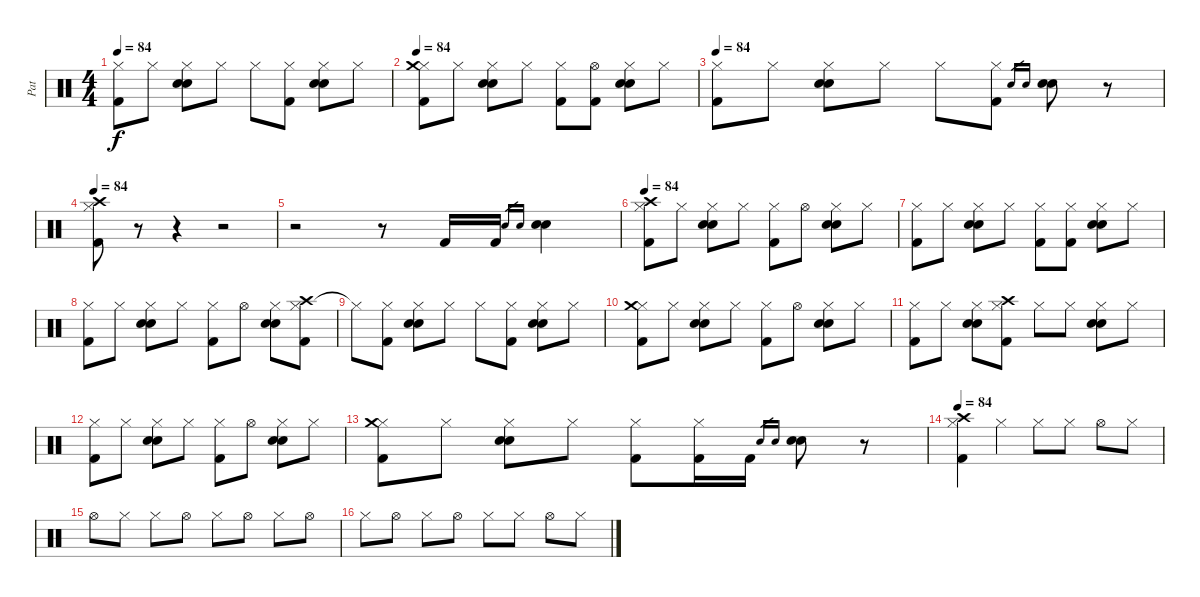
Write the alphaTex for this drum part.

\track ("Pat" "Pat") {instrument percussion}
\staff {score}
\articulation defaults
\ts (4 4)
\tempo 84
\clef neutral
\ks c
("Hi-Hat (closed)" "Kick (hit) 2").8{dy f} "Hi-Hat (closed)".8 ("Hi-Hat (closed)" "Electric Snare (hit)" "Snare (hit) 2").8 "Hi-Hat (closed)".8 "Hi-Hat (closed)".8 ("Hi-Hat (closed)" "Kick (hit) 2").8 ("Hi-Hat (closed)" "Electric Snare (hit)" "Snare (hit) 2").8 "Hi-Hat (closed)".8 |
\tempo 84
("Hi-Hat (closed)" "Crash medium (hit)" "Kick (hit) 2").8 "Hi-Hat (closed)".8 ("Hi-Hat (closed)" "Electric Snare (hit)" "Snare (hit) 2").8 "Hi-Hat (closed)".8 ("Hi-Hat (closed)" "Kick (hit) 2").8 ("Hi-Hat (open)" "Kick (hit) 2").8 ("Hi-Hat (closed)" "Electric Snare (hit)" "Snare (hit) 2").8 "Hi-Hat (closed)".8 |
\tempo 84
("Hi-Hat (closed)" "Kick (hit) 2").8 "Hi-Hat (closed)".8 ("Hi-Hat (closed)" "Electric Snare (hit)" "Snare (hit) 2").8 "Hi-Hat (closed)".8 "Hi-Hat (closed)".8 ("Hi-Hat (closed)" "Kick (hit) 2").8 "Electric Snare (hit)".16{gr} "Snare (hit) 2".16{gr} ("Electric Snare (hit)" "Snare (hit) 2").8 r.8 |
\tempo 84
("Hi-Hat (closed)" "Crash high (hit)" "Kick (hit) 2").8 r.8 r.4 r.2 |
r.2 r.8 "Kick (hit) 2".16 "Kick (hit) 2".16 "Electric Snare (hit)".16{gr} "Snare (hit) 2".16{gr} ("Electric Snare (hit)" "Snare (hit) 2").4 |
\tempo 84
("Hi-Hat (closed)" "Crash high (hit)" "Kick (hit) 2").8 "Hi-Hat (closed)".8 ("Hi-Hat (closed)" "Electric Snare (hit)" "Snare (hit) 2").8 "Hi-Hat (closed)".8 ("Hi-Hat (closed)" "Kick (hit) 2").8 "Hi-Hat (open)".8 ("Hi-Hat (closed)" "Electric Snare (hit)" "Snare (hit) 2").8 "Hi-Hat (closed)".8 |
("Hi-Hat (closed)" "Kick (hit) 2").8 "Hi-Hat (closed)".8 ("Hi-Hat (closed)" "Electric Snare (hit)" "Snare (hit) 2").8 "Hi-Hat (closed)".8 ("Hi-Hat (closed)" "Kick (hit) 2").8 ("Hi-Hat (closed)" "Kick (hit) 2").8 ("Hi-Hat (closed)" "Electric Snare (hit)" "Snare (hit) 2").8 "Hi-Hat (closed)".8 |
("Hi-Hat (closed)" "Kick (hit) 2").8 "Hi-Hat (closed)".8 ("Hi-Hat (closed)" "Electric Snare (hit)" "Snare (hit) 2").8 "Hi-Hat (closed)".8 ("Hi-Hat (closed)" "Kick (hit) 2").8 "Hi-Hat (open)".8 ("Hi-Hat (closed)" "Electric Snare (hit)" "Snare (hit) 2").8 ("Hi-Hat (closed)" "Crash high (hit)" "Kick (hit) 2").8 |
"Hi-Hat (closed)"{t}.8 ("Hi-Hat (closed)" "Kick (hit) 2").8 ("Hi-Hat (closed)" "Electric Snare (hit)" "Snare (hit) 2").8 "Hi-Hat (closed)".8 "Hi-Hat (closed)".8 ("Hi-Hat (closed)" "Kick (hit) 2").8 ("Hi-Hat (closed)" "Electric Snare (hit)" "Snare (hit) 2").8 "Hi-Hat (closed)".8 |
("Hi-Hat (closed)" "Crash medium (hit)" "Kick (hit) 2").8 "Hi-Hat (closed)".8 ("Hi-Hat (closed)" "Electric Snare (hit)" "Snare (hit) 2").8 "Hi-Hat (closed)".8 ("Hi-Hat (closed)" "Kick (hit) 2").8 "Hi-Hat (open)".8 ("Hi-Hat (closed)" "Electric Snare (hit)" "Snare (hit) 2").8 "Hi-Hat (closed)".8 |
("Hi-Hat (closed)" "Kick (hit) 2").8 "Hi-Hat (closed)".8 ("Hi-Hat (closed)" "Electric Snare (hit)" "Snare (hit) 2").8 ("Hi-Hat (closed)" "Crash high (hit)" "Kick (hit) 2").8 "Hi-Hat (closed)".8 "Hi-Hat (closed)".8 ("Hi-Hat (closed)" "Electric Snare (hit)" "Snare (hit) 2").8 "Hi-Hat (closed)".8 |
("Hi-Hat (closed)" "Kick (hit) 2").8 "Hi-Hat (closed)".8 ("Hi-Hat (closed)" "Electric Snare (hit)" "Snare (hit) 2").8 "Hi-Hat (closed)".8 ("Hi-Hat (closed)" "Kick (hit) 2").8 "Hi-Hat (open)".8 ("Hi-Hat (closed)" "Electric Snare (hit)" "Snare (hit) 2").8 "Hi-Hat (closed)".8 |
("Hi-Hat (closed)" "Crash medium (hit)" "Kick (hit) 2").8 "Hi-Hat (closed)".8 ("Hi-Hat (closed)" "Electric Snare (hit)" "Snare (hit) 2").8 "Hi-Hat (closed)".8 ("Hi-Hat (closed)" "Kick (hit) 2").8 ("Hi-Hat (closed)" "Kick (hit) 2").16 "Kick (hit) 2".16 "Electric Snare (hit)".16{gr} "Snare (hit) 2".16{gr} ("Electric Snare (hit)" "Snare (hit) 2").8 r.8 |
\tempo 84
("Hi-Hat (closed)" "Crash high (hit)" "Kick (hit) 2").4 "Hi-Hat (closed)".4 "Hi-Hat (closed)".8 "Hi-Hat (closed)".8 "Hi-Hat (open)".8 "Hi-Hat (closed)".8 |
"Hi-Hat (open)".8 "Hi-Hat (closed)".8 "Hi-Hat (closed)".8 "Hi-Hat (open)".8 "Hi-Hat (closed)".8 "Hi-Hat (open)".8 "Hi-Hat (closed)".8 "Hi-Hat (open)".8 |
"Hi-Hat (closed)".8 "Hi-Hat (open)".8 "Hi-Hat (closed)".8 "Hi-Hat (open)".8 "Hi-Hat (closed)".8 "Hi-Hat (closed)".8 "Hi-Hat (open)".8 "Hi-Hat (closed)".8
